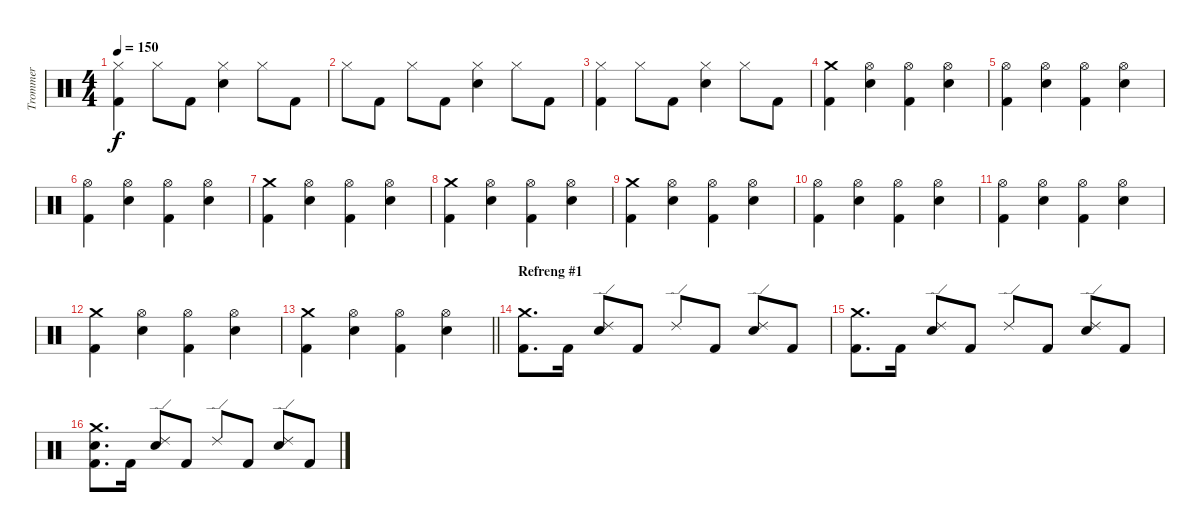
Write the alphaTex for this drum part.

\track ("Trommer" "Trommer") {instrument percussion}
\staff {score}
\articulation defaults
\ts (4 4)
\tempo 150
\clef neutral
\ks c
("Hi-Hat (closed)" "Kick (hit) 2").4{dy f} "Hi-Hat (closed)".8 "Kick (hit) 2".8 ("Hi-Hat (closed)" "Snare (hit) 2").4 "Hi-Hat (closed)".8 "Kick (hit) 2".8 |
"Hi-Hat (closed)".8 "Kick (hit) 2".8 "Hi-Hat (closed)".8 "Kick (hit) 2".8 ("Hi-Hat (closed)" "Snare (hit) 2").4 "Hi-Hat (closed)".8 "Kick (hit) 2".8 |
("Hi-Hat (closed)" "Kick (hit) 2").4 "Hi-Hat (closed)".8 "Kick (hit) 2".8 ("Hi-Hat (closed)" "Snare (hit) 2").4 "Hi-Hat (closed)".8 "Kick (hit) 2".8 |
("Crash medium (hit)" "Kick (hit) 2").4 ("Hi-Hat (open)" "Snare (hit) 2").4 ("Hi-Hat (open)" "Kick (hit) 2").4 ("Hi-Hat (open)" "Snare (hit) 2").4 |
("Hi-Hat (open)" "Kick (hit) 2").4 ("Hi-Hat (open)" "Snare (hit) 2").4 ("Hi-Hat (open)" "Kick (hit) 2").4 ("Hi-Hat (open)" "Snare (hit) 2").4 |
("Hi-Hat (open)" "Kick (hit) 2").4 ("Hi-Hat (open)" "Snare (hit) 2").4 ("Hi-Hat (open)" "Kick (hit) 2").4 ("Hi-Hat (open)" "Snare (hit) 2").4 |
("Crash medium (hit)" "Kick (hit) 2").4 ("Hi-Hat (open)" "Snare (hit) 2").4 ("Hi-Hat (open)" "Kick (hit) 2").4 ("Hi-Hat (open)" "Snare (hit) 2").4 |
("Crash medium (hit)" "Kick (hit) 2").4 ("Hi-Hat (open)" "Snare (hit) 2").4 ("Hi-Hat (open)" "Kick (hit) 2").4 ("Hi-Hat (open)" "Snare (hit) 2").4 |
("Crash medium (hit)" "Kick (hit) 2").4 ("Hi-Hat (open)" "Snare (hit) 2").4 ("Hi-Hat (open)" "Kick (hit) 2").4 ("Hi-Hat (open)" "Snare (hit) 2").4 |
("Hi-Hat (open)" "Kick (hit) 2").4 ("Hi-Hat (open)" "Snare (hit) 2").4 ("Hi-Hat (open)" "Kick (hit) 2").4 ("Hi-Hat (open)" "Snare (hit) 2").4 |
("Hi-Hat (open)" "Kick (hit) 2").4 ("Hi-Hat (open)" "Snare (hit) 2").4 ("Hi-Hat (open)" "Kick (hit) 2").4 ("Hi-Hat (open)" "Snare (hit) 2").4 |
("Crash medium (hit)" "Kick (hit) 2").4 ("Hi-Hat (open)" "Snare (hit) 2").4 ("Hi-Hat (open)" "Kick (hit) 2").4 ("Hi-Hat (open)" "Snare (hit) 2").4 |
\barLineRight lightlight
("Crash medium (hit)" "Kick (hit) 2").4 ("Hi-Hat (open)" "Snare (hit) 2").4 ("Hi-Hat (open)" "Kick (hit) 2").4 ("Hi-Hat (open)" "Snare (hit) 2").4 |
\section ("" "Refreng #1")
("Crash medium (hit)" "Kick (hit) 2").8{d} "Kick (hit) 2".16 ("Ride (edge) 2" "Snare (hit) 2").8 "Kick (hit) 2".8 "Ride (edge) 2".8 "Kick (hit) 2".8 ("Ride (edge) 2" "Snare (hit) 2").8 "Kick (hit) 2".8 |
("Crash medium (hit)" "Kick (hit) 2").8{d} "Kick (hit) 2".16 ("Ride (edge) 2" "Snare (hit) 2").8 "Kick (hit) 2".8 "Ride (edge) 2".8 "Kick (hit) 2".8 ("Ride (edge) 2" "Snare (hit) 2").8 "Kick (hit) 2".8 |
("Crash medium (hit)" "Snare (hit) 2" "Kick (hit) 2").8{d} "Kick (hit) 2".16 ("Ride (edge) 2" "Snare (hit) 2").8 "Kick (hit) 2".8 "Ride (edge) 2".8 "Kick (hit) 2".8 ("Ride (edge) 2" "Snare (hit) 2").8 "Kick (hit) 2".8
